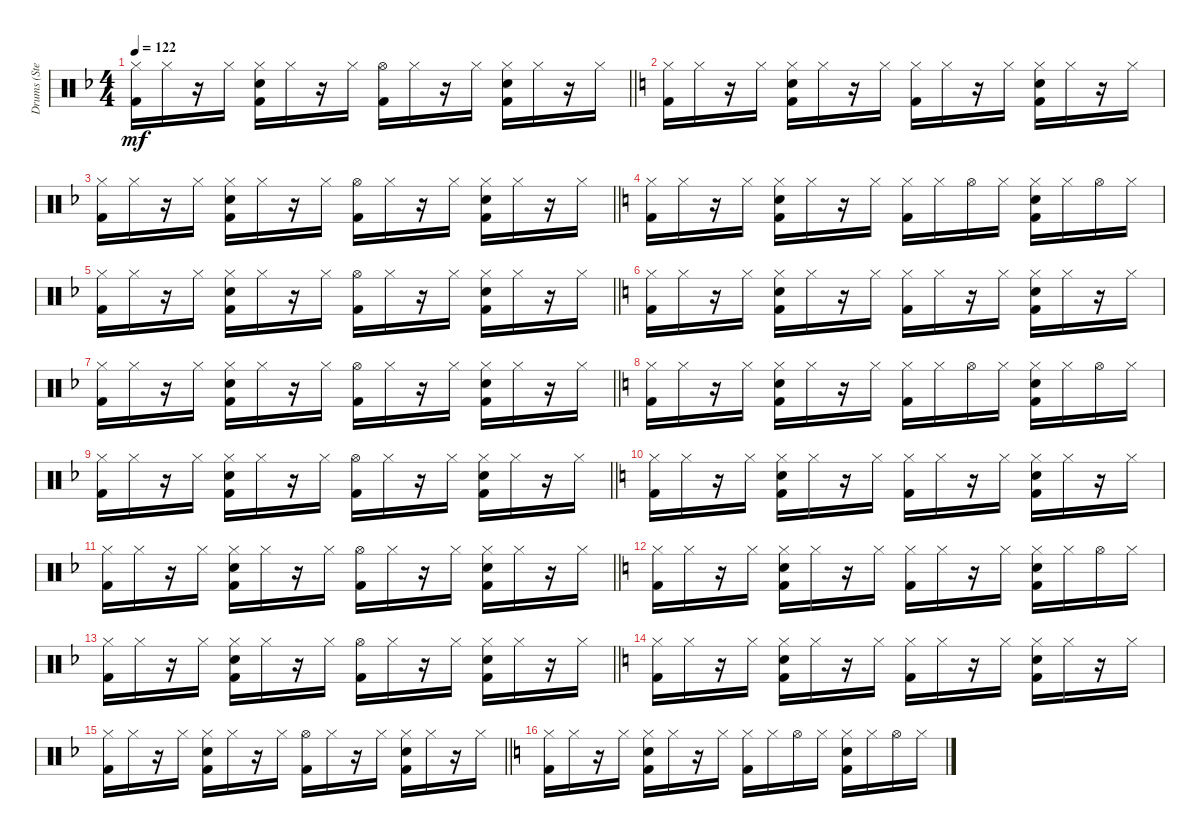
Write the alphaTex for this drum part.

\track ("Drums (Stephen Morris)" "Drums (Ste") {instrument percussion}
\staff {score}
\articulation defaults
\ts (4 4)
\tempo 122
\clef neutral
\barLineRight lightlight
\ks f
("Kick (hit) 2" "Hi-Hat (closed)").16{dy mf} "Hi-Hat (closed)".16 r.16 "Hi-Hat (closed)".16 ("Hi-Hat (closed)" "Snare (hit) 2" "Kick (hit) 2").16 "Hi-Hat (closed)".16 r.16 "Hi-Hat (closed)".16 ("Kick (hit) 2" "Hi-Hat (open)").16 "Hi-Hat (closed)".16 r.16 "Hi-Hat (closed)".16 ("Kick (hit) 2" "Snare (hit) 2" "Hi-Hat (closed)").16 "Hi-Hat (closed)".16 r.16 "Hi-Hat (closed)".16 |
\ks c
("Kick (hit) 2" "Hi-Hat (closed)").16 "Hi-Hat (closed)".16 r.16 "Hi-Hat (closed)".16 ("Hi-Hat (closed)" "Snare (hit) 2" "Kick (hit) 2").16 "Hi-Hat (closed)".16 r.16 "Hi-Hat (closed)".16 ("Kick (hit) 2" "Hi-Hat (closed)").16 "Hi-Hat (closed)".16 r.16 "Hi-Hat (closed)".16 ("Kick (hit) 2" "Snare (hit) 2" "Hi-Hat (closed)").16 "Hi-Hat (closed)".16 r.16 "Hi-Hat (closed)".16 |
\barLineRight lightlight
\ks f
("Kick (hit) 2" "Hi-Hat (closed)").16 "Hi-Hat (closed)".16 r.16 "Hi-Hat (closed)".16 ("Hi-Hat (closed)" "Snare (hit) 2" "Kick (hit) 2").16 "Hi-Hat (closed)".16 r.16 "Hi-Hat (closed)".16 ("Hi-Hat (open)" "Kick (hit) 2").16 "Hi-Hat (closed)".16 r.16 "Hi-Hat (closed)".16 ("Hi-Hat (closed)" "Snare (hit) 2" "Kick (hit) 2").16 "Hi-Hat (closed)".16 r.16 "Hi-Hat (closed)".16 |
\ks c
("Kick (hit) 2" "Hi-Hat (closed)").16 "Hi-Hat (closed)".16 r.16 "Hi-Hat (closed)".16 ("Kick (hit) 2" "Snare (hit) 2" "Hi-Hat (closed)").16 "Hi-Hat (closed)".16 r.16 "Hi-Hat (closed)".16 ("Hi-Hat (closed)" "Kick (hit) 2").16 "Hi-Hat (closed)".16 "Hi-Hat (open)".16 "Hi-Hat (closed)".16 ("Kick (hit) 2" "Snare (hit) 2" "Hi-Hat (closed)").16 "Hi-Hat (closed)".16 "Hi-Hat (open)".16 "Hi-Hat (closed)".16 |
\barLineRight lightlight
\ks f
("Kick (hit) 2" "Hi-Hat (closed)").16 "Hi-Hat (closed)".16 r.16 "Hi-Hat (closed)".16 ("Hi-Hat (closed)" "Snare (hit) 2" "Kick (hit) 2").16 "Hi-Hat (closed)".16 r.16 "Hi-Hat (closed)".16 ("Kick (hit) 2" "Hi-Hat (open)").16 "Hi-Hat (closed)".16 r.16 "Hi-Hat (closed)".16 ("Kick (hit) 2" "Snare (hit) 2" "Hi-Hat (closed)").16 "Hi-Hat (closed)".16 r.16 "Hi-Hat (closed)".16 |
\ks c
("Kick (hit) 2" "Hi-Hat (closed)").16 "Hi-Hat (closed)".16 r.16 "Hi-Hat (closed)".16 ("Hi-Hat (closed)" "Snare (hit) 2" "Kick (hit) 2").16 "Hi-Hat (closed)".16 r.16 "Hi-Hat (closed)".16 ("Kick (hit) 2" "Hi-Hat (closed)").16 "Hi-Hat (closed)".16 r.16 "Hi-Hat (closed)".16 ("Kick (hit) 2" "Snare (hit) 2" "Hi-Hat (closed)").16 "Hi-Hat (closed)".16 r.16 "Hi-Hat (closed)".16 |
\barLineRight lightlight
\ks f
("Kick (hit) 2" "Hi-Hat (closed)").16 "Hi-Hat (closed)".16 r.16 "Hi-Hat (closed)".16 ("Hi-Hat (closed)" "Snare (hit) 2" "Kick (hit) 2").16 "Hi-Hat (closed)".16 r.16 "Hi-Hat (closed)".16 ("Hi-Hat (open)" "Kick (hit) 2").16 "Hi-Hat (closed)".16 r.16 "Hi-Hat (closed)".16 ("Hi-Hat (closed)" "Snare (hit) 2" "Kick (hit) 2").16 "Hi-Hat (closed)".16 r.16 "Hi-Hat (closed)".16 |
\ks c
("Kick (hit) 2" "Hi-Hat (closed)").16 "Hi-Hat (closed)".16 r.16 "Hi-Hat (closed)".16 ("Kick (hit) 2" "Snare (hit) 2" "Hi-Hat (closed)").16 "Hi-Hat (closed)".16 r.16 "Hi-Hat (closed)".16 ("Hi-Hat (closed)" "Kick (hit) 2").16 "Hi-Hat (closed)".16 "Hi-Hat (open)".16 "Hi-Hat (closed)".16 ("Kick (hit) 2" "Snare (hit) 2" "Hi-Hat (closed)").16 "Hi-Hat (closed)".16 "Hi-Hat (open)".16 "Hi-Hat (closed)".16 |
\barLineRight lightlight
\ks f
("Kick (hit) 2" "Hi-Hat (closed)").16 "Hi-Hat (closed)".16 r.16 "Hi-Hat (closed)".16 ("Hi-Hat (closed)" "Snare (hit) 2" "Kick (hit) 2").16 "Hi-Hat (closed)".16 r.16 "Hi-Hat (closed)".16 ("Hi-Hat (open)" "Kick (hit) 2").16 "Hi-Hat (closed)".16 r.16 "Hi-Hat (closed)".16 ("Kick (hit) 2" "Snare (hit) 2" "Hi-Hat (closed)").16 "Hi-Hat (closed)".16 r.16 "Hi-Hat (closed)".16 |
\ks c
("Kick (hit) 2" "Hi-Hat (closed)").16 "Hi-Hat (closed)".16 r.16 "Hi-Hat (closed)".16 ("Hi-Hat (closed)" "Snare (hit) 2" "Kick (hit) 2").16 "Hi-Hat (closed)".16 r.16 "Hi-Hat (closed)".16 ("Kick (hit) 2" "Hi-Hat (closed)").16 "Hi-Hat (closed)".16 r.16 "Hi-Hat (closed)".16 ("Kick (hit) 2" "Snare (hit) 2" "Hi-Hat (closed)").16 "Hi-Hat (closed)".16 r.16 "Hi-Hat (closed)".16 |
\barLineRight lightlight
\ks f
("Kick (hit) 2" "Hi-Hat (closed)").16 "Hi-Hat (closed)".16 r.16 "Hi-Hat (closed)".16 ("Hi-Hat (closed)" "Snare (hit) 2" "Kick (hit) 2").16 "Hi-Hat (closed)".16 r.16 "Hi-Hat (closed)".16 ("Kick (hit) 2" "Hi-Hat (open)").16 "Hi-Hat (closed)".16 r.16 "Hi-Hat (closed)".16 ("Hi-Hat (closed)" "Snare (hit) 2" "Kick (hit) 2").16 "Hi-Hat (closed)".16 r.16 "Hi-Hat (closed)".16 |
\ks c
("Kick (hit) 2" "Hi-Hat (closed)").16 "Hi-Hat (closed)".16 r.16 "Hi-Hat (closed)".16 ("Kick (hit) 2" "Snare (hit) 2" "Hi-Hat (closed)").16 "Hi-Hat (closed)".16 r.16 "Hi-Hat (closed)".16 ("Hi-Hat (closed)" "Kick (hit) 2").16 "Hi-Hat (closed)".16 r.16 "Hi-Hat (closed)".16 ("Hi-Hat (closed)" "Snare (hit) 2" "Kick (hit) 2").16 "Hi-Hat (closed)".16 "Hi-Hat (open)".16 "Hi-Hat (closed)".16 |
\barLineRight lightlight
\ks f
("Kick (hit) 2" "Hi-Hat (closed)").16 "Hi-Hat (closed)".16 r.16 "Hi-Hat (closed)".16 ("Hi-Hat (closed)" "Snare (hit) 2" "Kick (hit) 2").16 "Hi-Hat (closed)".16 r.16 "Hi-Hat (closed)".16 ("Hi-Hat (open)" "Kick (hit) 2").16 "Hi-Hat (closed)".16 r.16 "Hi-Hat (closed)".16 ("Kick (hit) 2" "Snare (hit) 2" "Hi-Hat (closed)").16 "Hi-Hat (closed)".16 r.16 "Hi-Hat (closed)".16 |
\ks c
("Kick (hit) 2" "Hi-Hat (closed)").16 "Hi-Hat (closed)".16 r.16 "Hi-Hat (closed)".16 ("Hi-Hat (closed)" "Snare (hit) 2" "Kick (hit) 2").16 "Hi-Hat (closed)".16 r.16 "Hi-Hat (closed)".16 ("Kick (hit) 2" "Hi-Hat (closed)").16 "Hi-Hat (closed)".16 r.16 "Hi-Hat (closed)".16 ("Kick (hit) 2" "Snare (hit) 2" "Hi-Hat (closed)").16 "Hi-Hat (closed)".16 r.16 "Hi-Hat (closed)".16 |
\barLineRight lightlight
\ks f
("Kick (hit) 2" "Hi-Hat (closed)").16 "Hi-Hat (closed)".16 r.16 "Hi-Hat (closed)".16 ("Hi-Hat (closed)" "Snare (hit) 2" "Kick (hit) 2").16 "Hi-Hat (closed)".16 r.16 "Hi-Hat (closed)".16 ("Kick (hit) 2" "Hi-Hat (open)").16 "Hi-Hat (closed)".16 r.16 "Hi-Hat (closed)".16 ("Hi-Hat (closed)" "Snare (hit) 2" "Kick (hit) 2").16 "Hi-Hat (closed)".16 r.16 "Hi-Hat (closed)".16 |
\ks c
("Kick (hit) 2" "Hi-Hat (closed)").16 "Hi-Hat (closed)".16 r.16 "Hi-Hat (closed)".16 ("Kick (hit) 2" "Snare (hit) 2" "Hi-Hat (closed)").16 "Hi-Hat (closed)".16 r.16 "Hi-Hat (closed)".16 ("Hi-Hat (closed)" "Kick (hit) 2").16 "Hi-Hat (closed)".16 "Hi-Hat (open)".16 "Hi-Hat (closed)".16 ("Kick (hit) 2" "Snare (hit) 2" "Hi-Hat (closed)").16 "Hi-Hat (closed)".16 "Hi-Hat (open)".16 "Hi-Hat (closed)".16
